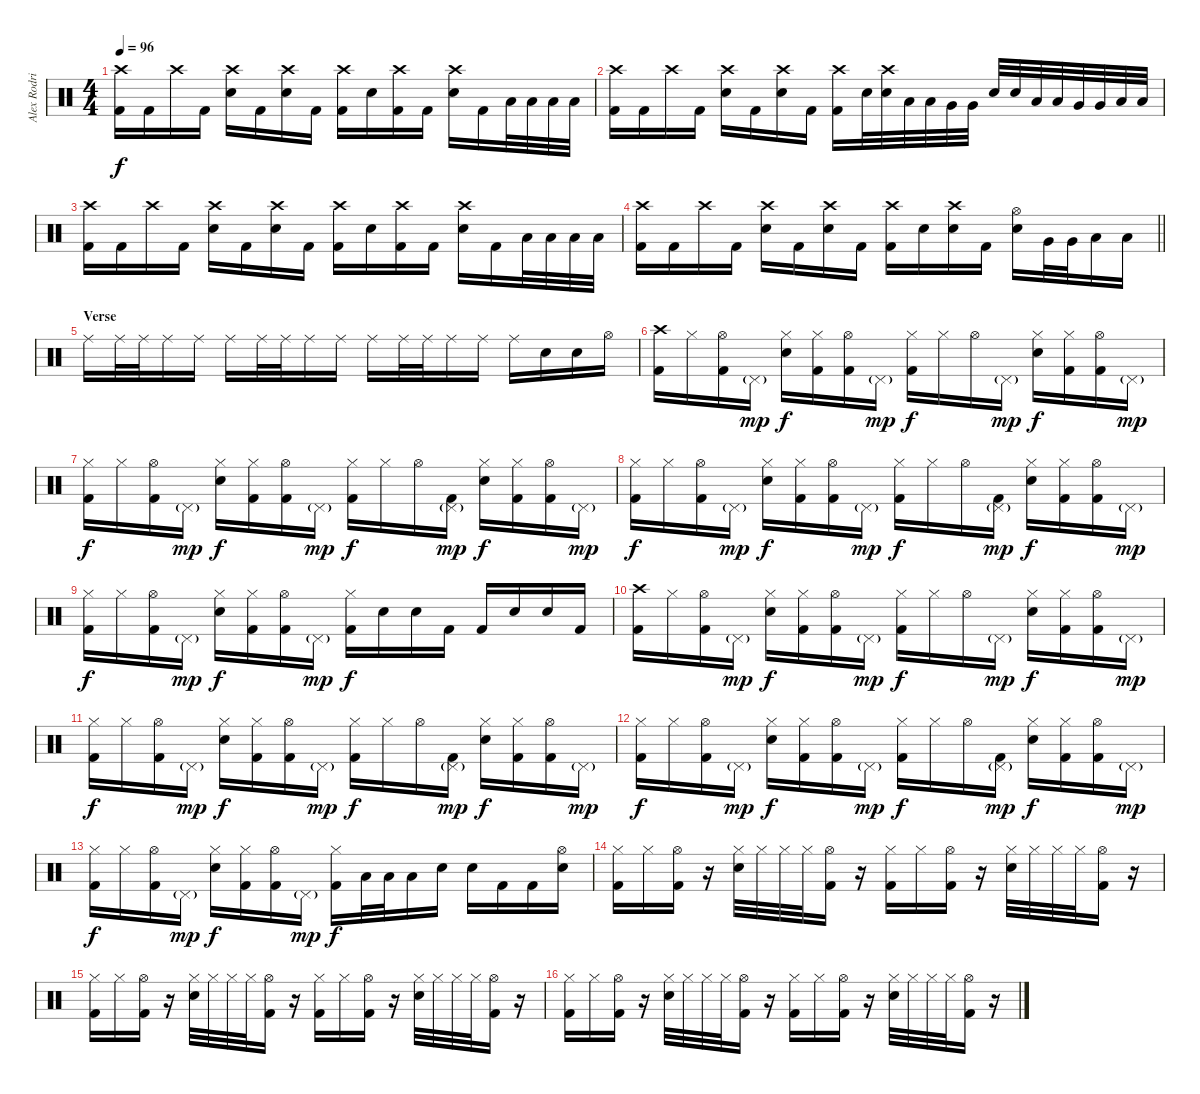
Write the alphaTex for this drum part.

\track ("Alex Rodriguez" "Alex Rodri") {instrument percussion}
\staff {score}
\articulation defaults
\ts (4 4)
\tempo 96
\clef neutral
\ks c
("Crash high (hit)" "Kick (hit) 2").16{dy f} "Kick (hit) 2".16 "Crash high (hit)".16 "Kick (hit) 2".16 ("Crash high (hit)" "Electric Snare (hit)").16 "Kick (hit) 2".16 ("Crash high (hit)" "Electric Snare (hit)").16 "Kick (hit) 2".16 ("Crash high (hit)" "Kick (hit) 2").16 "Electric Snare (hit)".16 ("Crash high (hit)" "Kick (hit) 2").16 "Kick (hit) 2".16 ("Crash high (hit)" "Electric Snare (hit)").16 "Kick (hit) 2".16 "Low Floor Tom (hit)".32 "Low Floor Tom (hit)".32 "Low Floor Tom (hit)".32 "Low Floor Tom (hit)".32 |
("Crash high (hit)" "Kick (hit) 2").16 "Kick (hit) 2".16 "Crash high (hit)".16 "Kick (hit) 2".16 ("Crash high (hit)" "Electric Snare (hit)").16 "Kick (hit) 2".16 ("Crash high (hit)" "Electric Snare (hit)").16 "Kick (hit) 2".16 ("Crash high (hit)" "Kick (hit) 2").16 "Electric Snare (hit)".32 ("Crash high (hit)" "Electric Snare (hit)").32 "Low Tom (hit)".32 "Low Tom (hit)".32 "Very Low Tom (hit)".32 "Very Low Tom (hit)".32 "Electric Snare (hit)".32 "Electric Snare (hit)".32 "Low Tom (hit)".32 "Low Tom (hit)".32 "Very Low Tom (hit)".32 "Very Low Tom (hit)".32 "Low Floor Tom (hit)".32 "Low Floor Tom (hit)".32 |
("Crash high (hit)" "Kick (hit) 2").16 "Kick (hit) 2".16 "Crash high (hit)".16 "Kick (hit) 2".16 ("Crash high (hit)" "Electric Snare (hit)").16 "Kick (hit) 2".16 ("Crash high (hit)" "Electric Snare (hit)").16 "Kick (hit) 2".16 ("Crash high (hit)" "Kick (hit) 2").16 "Electric Snare (hit)".16 ("Crash high (hit)" "Kick (hit) 2").16 "Kick (hit) 2".16 ("Crash high (hit)" "Electric Snare (hit)").16 "Kick (hit) 2".16 "Low Floor Tom (hit)".32 "Low Floor Tom (hit)".32 "Low Floor Tom (hit)".32 "Low Floor Tom (hit)".32 |
\barLineRight lightlight
("Crash high (hit)" "Kick (hit) 2").16 "Kick (hit) 2".16 "Crash high (hit)".16 "Kick (hit) 2".16 ("Crash high (hit)" "Electric Snare (hit)").16 "Kick (hit) 2".16 ("Crash high (hit)" "Electric Snare (hit)").16 "Kick (hit) 2".16 ("Crash high (hit)" "Kick (hit) 2").16 "Electric Snare (hit)".16 ("Crash high (hit)" "Electric Snare (hit)").16 "Kick (hit) 2".16 ("Hi-Hat (open)" "Electric Snare (hit)").16 "Very Low Tom (hit)".32 "Very Low Tom (hit)".32 "Low Floor Tom (hit)".16 "Low Floor Tom (hit)".16 |
\section ("" "Verse")
"Ride (middle)".16 "Ride (middle)".32 "Ride (middle)".32 "Ride (middle)".16 "Ride (middle)".16 "Ride (middle)".16 "Ride (middle)".32 "Ride (middle)".32 "Ride (middle)".16 "Ride (middle)".16 "Ride (middle)".16 "Ride (middle)".32 "Ride (middle)".32 "Ride (middle)".16 "Ride (middle)".16 "Ride (middle)".16 "Electric Snare (hit)".16 "Electric Snare (hit)".16 "Hi-Hat (open)".16 |
("Crash high (hit)" "Kick (hit) 2").16 "Hi-Hat (closed)".16 ("Hi-Hat (open)" "Kick (hit) 2").16 "Pedal Hi-Hat (hit)"{g}.16{dy mp} ("Hi-Hat (closed)" "Electric Snare (hit)").16{dy f} ("Hi-Hat (closed)" "Kick (hit) 2").16 ("Hi-Hat (open)" "Kick (hit) 2").16 "Pedal Hi-Hat (hit)"{g}.16{dy mp} ("Hi-Hat (closed)" "Kick (hit) 2").16{dy f} "Hi-Hat (closed)".16 "Hi-Hat (open)".16 "Pedal Hi-Hat (hit)"{g}.16{dy mp} ("Hi-Hat (closed)" "Electric Snare (hit)").16{dy f} ("Hi-Hat (closed)" "Kick (hit) 2").16 ("Hi-Hat (open)" "Kick (hit) 2").16 "Pedal Hi-Hat (hit)"{g}.16{dy mp} |
("Hi-Hat (closed)" "Kick (hit) 2").16{dy f} "Hi-Hat (closed)".16 ("Hi-Hat (open)" "Kick (hit) 2").16 "Pedal Hi-Hat (hit)"{g}.16{dy mp} ("Hi-Hat (closed)" "Electric Snare (hit)").16{dy f} ("Hi-Hat (closed)" "Kick (hit) 2").16 ("Hi-Hat (open)" "Kick (hit) 2").16 "Pedal Hi-Hat (hit)"{g}.16{dy mp} ("Hi-Hat (closed)" "Kick (hit) 2").16{dy f} "Hi-Hat (closed)".16 "Hi-Hat (open)".16 ("Pedal Hi-Hat (hit)"{g} "Kick (hit) 2").16{dy mp} ("Hi-Hat (closed)" "Electric Snare (hit)").16{dy f} ("Hi-Hat (closed)" "Kick (hit) 2").16 ("Hi-Hat (open)" "Kick (hit) 2").16 "Pedal Hi-Hat (hit)"{g}.16{dy mp} |
("Hi-Hat (closed)" "Kick (hit) 2").16{dy f} "Hi-Hat (closed)".16 ("Hi-Hat (open)" "Kick (hit) 2").16 "Pedal Hi-Hat (hit)"{g}.16{dy mp} ("Hi-Hat (closed)" "Electric Snare (hit)").16{dy f} ("Hi-Hat (closed)" "Kick (hit) 2").16 ("Hi-Hat (open)" "Kick (hit) 2").16 "Pedal Hi-Hat (hit)"{g}.16{dy mp} ("Hi-Hat (closed)" "Kick (hit) 2").16{dy f} "Hi-Hat (closed)".16 "Hi-Hat (open)".16 ("Pedal Hi-Hat (hit)"{g} "Kick (hit) 2").16{dy mp} ("Hi-Hat (closed)" "Electric Snare (hit)").16{dy f} ("Hi-Hat (closed)" "Kick (hit) 2").16 ("Hi-Hat (open)" "Kick (hit) 2").16 "Pedal Hi-Hat (hit)"{g}.16{dy mp} |
("Hi-Hat (closed)" "Kick (hit) 2").16{dy f} "Hi-Hat (closed)".16 ("Hi-Hat (open)" "Kick (hit) 2").16 "Pedal Hi-Hat (hit)"{g}.16{dy mp} ("Hi-Hat (closed)" "Electric Snare (hit)").16{dy f} ("Hi-Hat (closed)" "Kick (hit) 2").16 ("Hi-Hat (open)" "Kick (hit) 2").16 "Pedal Hi-Hat (hit)"{g}.16{dy mp} ("Hi-Hat (closed)" "Kick (hit) 2").16{dy f} "Electric Snare (hit)".16 "Electric Snare (hit)".16 "Kick (hit) 2".16 "Kick (hit) 2".16 "Electric Snare (hit)".16 "Electric Snare (hit)".16 "Kick (hit) 2".16 |
("Crash high (hit)" "Kick (hit) 2").16 "Hi-Hat (closed)".16 ("Hi-Hat (open)" "Kick (hit) 2").16 "Pedal Hi-Hat (hit)"{g}.16{dy mp} ("Hi-Hat (closed)" "Electric Snare (hit)").16{dy f} ("Hi-Hat (closed)" "Kick (hit) 2").16 ("Hi-Hat (open)" "Kick (hit) 2").16 "Pedal Hi-Hat (hit)"{g}.16{dy mp} ("Hi-Hat (closed)" "Kick (hit) 2").16{dy f} "Hi-Hat (closed)".16 "Hi-Hat (open)".16 "Pedal Hi-Hat (hit)"{g}.16{dy mp} ("Hi-Hat (closed)" "Electric Snare (hit)").16{dy f} ("Hi-Hat (closed)" "Kick (hit) 2").16 ("Hi-Hat (open)" "Kick (hit) 2").16 "Pedal Hi-Hat (hit)"{g}.16{dy mp} |
("Hi-Hat (closed)" "Kick (hit) 2").16{dy f} "Hi-Hat (closed)".16 ("Hi-Hat (open)" "Kick (hit) 2").16 "Pedal Hi-Hat (hit)"{g}.16{dy mp} ("Hi-Hat (closed)" "Electric Snare (hit)").16{dy f} ("Hi-Hat (closed)" "Kick (hit) 2").16 ("Hi-Hat (open)" "Kick (hit) 2").16 "Pedal Hi-Hat (hit)"{g}.16{dy mp} ("Hi-Hat (closed)" "Kick (hit) 2").16{dy f} "Hi-Hat (closed)".16 "Hi-Hat (open)".16 ("Pedal Hi-Hat (hit)"{g} "Kick (hit) 2").16{dy mp} ("Hi-Hat (closed)" "Electric Snare (hit)").16{dy f} ("Hi-Hat (closed)" "Kick (hit) 2").16 ("Hi-Hat (open)" "Kick (hit) 2").16 "Pedal Hi-Hat (hit)"{g}.16{dy mp} |
("Hi-Hat (closed)" "Kick (hit) 2").16{dy f} "Hi-Hat (closed)".16 ("Hi-Hat (open)" "Kick (hit) 2").16 "Pedal Hi-Hat (hit)"{g}.16{dy mp} ("Hi-Hat (closed)" "Electric Snare (hit)").16{dy f} ("Hi-Hat (closed)" "Kick (hit) 2").16 ("Hi-Hat (open)" "Kick (hit) 2").16 "Pedal Hi-Hat (hit)"{g}.16{dy mp} ("Hi-Hat (closed)" "Kick (hit) 2").16{dy f} "Hi-Hat (closed)".16 "Hi-Hat (open)".16 ("Pedal Hi-Hat (hit)"{g} "Kick (hit) 2").16{dy mp} ("Hi-Hat (closed)" "Electric Snare (hit)").16{dy f} ("Hi-Hat (closed)" "Kick (hit) 2").16 ("Hi-Hat (open)" "Kick (hit) 2").16 "Pedal Hi-Hat (hit)"{g}.16{dy mp} |
("Hi-Hat (closed)" "Kick (hit) 2").16{dy f} "Hi-Hat (closed)".16 ("Hi-Hat (open)" "Kick (hit) 2").16 "Pedal Hi-Hat (hit)"{g}.16{dy mp} ("Hi-Hat (closed)" "Electric Snare (hit)").16{dy f} ("Hi-Hat (closed)" "Kick (hit) 2").16 ("Hi-Hat (open)" "Kick (hit) 2").16 "Pedal Hi-Hat (hit)"{g}.16{dy mp} ("Hi-Hat (closed)" "Kick (hit) 2").16{dy f} "Low Tom (hit)".32 "Low Tom (hit)".32 "Low Tom (hit)".16 "Electric Snare (hit)".16 "Electric Snare (hit)".16 "Kick (hit) 2".16 "Kick (hit) 2".16 ("Hi-Hat (open)" "Electric Snare (hit)").16 |
("Hi-Hat (closed)" "Kick (hit) 2").16 "Hi-Hat (closed)".16 ("Hi-Hat (open)" "Kick (hit) 2").16 r.16 ("Hi-Hat (closed)" "Electric Snare (hit)").32 "Hi-Hat (closed)".32 "Hi-Hat (closed)".32 "Hi-Hat (closed)".32 ("Hi-Hat (open)" "Kick (hit) 2").16 r.16 ("Hi-Hat (closed)" "Kick (hit) 2").16 "Hi-Hat (closed)".16 ("Hi-Hat (open)" "Kick (hit) 2").16 r.16 ("Hi-Hat (closed)" "Electric Snare (hit)").32 "Hi-Hat (closed)".32 "Hi-Hat (closed)".32 "Hi-Hat (closed)".32 ("Hi-Hat (open)" "Kick (hit) 2").16 r.16 |
("Hi-Hat (closed)" "Kick (hit) 2").16 "Hi-Hat (closed)".16 ("Hi-Hat (open)" "Kick (hit) 2").16 r.16 ("Hi-Hat (closed)" "Electric Snare (hit)").32 "Hi-Hat (closed)".32 "Hi-Hat (closed)".32 "Hi-Hat (closed)".32 ("Hi-Hat (open)" "Kick (hit) 2").16 r.16 ("Hi-Hat (closed)" "Kick (hit) 2").16 "Hi-Hat (closed)".16 ("Hi-Hat (open)" "Kick (hit) 2").16 r.16 ("Hi-Hat (closed)" "Electric Snare (hit)").32 "Hi-Hat (closed)".32 "Hi-Hat (closed)".32 "Hi-Hat (closed)".32 ("Hi-Hat (open)" "Kick (hit) 2").16 r.16 |
("Hi-Hat (closed)" "Kick (hit) 2").16 "Hi-Hat (closed)".16 ("Hi-Hat (open)" "Kick (hit) 2").16 r.16 ("Hi-Hat (closed)" "Electric Snare (hit)").32 "Hi-Hat (closed)".32 "Hi-Hat (closed)".32 "Hi-Hat (closed)".32 ("Hi-Hat (open)" "Kick (hit) 2").16 r.16 ("Hi-Hat (closed)" "Kick (hit) 2").16 "Hi-Hat (closed)".16 ("Hi-Hat (open)" "Kick (hit) 2").16 r.16 ("Hi-Hat (closed)" "Electric Snare (hit)").32 "Hi-Hat (closed)".32 "Hi-Hat (closed)".32 "Hi-Hat (closed)".32 ("Hi-Hat (open)" "Kick (hit) 2").16 r.16
